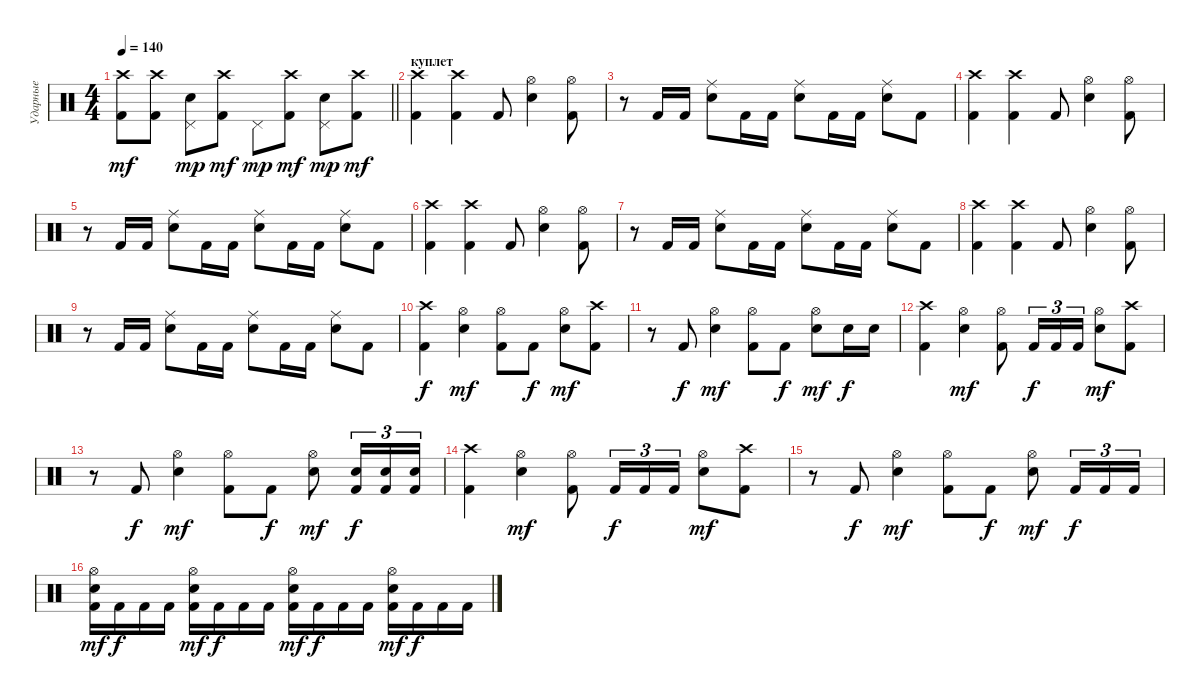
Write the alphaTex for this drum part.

\track ("Ударные" "Ударные") {instrument percussion}
\staff {score}
\articulation defaults
\ts (4 4)
\tempo 140
\clef neutral
\barLineRight lightlight
\ks c
("Kick (hit) 2" "Crash high (hit)").8{dy mf} ("Kick (hit) 2" "Crash high (hit)").8 ("Snare (hit) 2" "Pedal Hi-Hat (hit)").8{dy mp} ("Kick (hit) 2" "Crash high (hit)").8{dy mf} "Pedal Hi-Hat (hit)".8{dy mp} ("Kick (hit) 2" "Crash high (hit)").8{dy mf} ("Snare (hit) 2" "Pedal Hi-Hat (hit)").8{dy mp} ("Kick (hit) 2" "Crash high (hit)").8{dy mf} |
\section ("" "куплет")
("Kick (hit) 2" "Crash high (hit)").4 ("Kick (hit) 2" "Crash high (hit)").4 "Kick (hit) 2".8 ("Snare (hit) 2" "Hi-Hat (open)").4 ("Kick (hit) 2" "Hi-Hat (open)").8 |
r.8 "Kick (hit) 2".16 "Kick (hit) 2".16 ("Snare (hit) 2" "Ride (middle)").8 "Kick (hit) 2".16 "Kick (hit) 2".16 ("Snare (hit) 2" "Ride (middle)").8 "Kick (hit) 2".16 "Kick (hit) 2".16 ("Snare (hit) 2" "Ride (middle)").8 "Kick (hit) 2".8 |
("Kick (hit) 2" "Crash high (hit)").4 ("Kick (hit) 2" "Crash high (hit)").4 "Kick (hit) 2".8 ("Snare (hit) 2" "Hi-Hat (open)").4 ("Kick (hit) 2" "Hi-Hat (open)").8 |
r.8 "Kick (hit) 2".16 "Kick (hit) 2".16 ("Snare (hit) 2" "Ride (middle)").8 "Kick (hit) 2".16 "Kick (hit) 2".16 ("Snare (hit) 2" "Ride (middle)").8 "Kick (hit) 2".16 "Kick (hit) 2".16 ("Snare (hit) 2" "Ride (middle)").8 "Kick (hit) 2".8 |
("Kick (hit) 2" "Crash high (hit)").4 ("Kick (hit) 2" "Crash high (hit)").4 "Kick (hit) 2".8 ("Snare (hit) 2" "Hi-Hat (open)").4 ("Kick (hit) 2" "Hi-Hat (open)").8 |
r.8 "Kick (hit) 2".16 "Kick (hit) 2".16 ("Snare (hit) 2" "Ride (middle)").8 "Kick (hit) 2".16 "Kick (hit) 2".16 ("Snare (hit) 2" "Ride (middle)").8 "Kick (hit) 2".16 "Kick (hit) 2".16 ("Snare (hit) 2" "Ride (middle)").8 "Kick (hit) 2".8 |
("Kick (hit) 2" "Crash high (hit)").4 ("Kick (hit) 2" "Crash high (hit)").4 "Kick (hit) 2".8 ("Snare (hit) 2" "Hi-Hat (open)").4 ("Kick (hit) 2" "Hi-Hat (open)").8 |
r.8 "Kick (hit) 2".16 "Kick (hit) 2".16 ("Snare (hit) 2" "Ride (middle)").8 "Kick (hit) 2".16 "Kick (hit) 2".16 ("Snare (hit) 2" "Ride (middle)").8 "Kick (hit) 2".16 "Kick (hit) 2".16 ("Snare (hit) 2" "Ride (middle)").8 "Kick (hit) 2".8 |
("Kick (hit) 2" "Crash high (hit)").4{dy f} ("Snare (hit) 2" "Hi-Hat (open)").4{dy mf} ("Kick (hit) 2" "Hi-Hat (open)").8 "Kick (hit) 2".8{dy f} ("Snare (hit) 2" "Hi-Hat (open)").8{dy mf} ("Kick (hit) 2" "Crash high (hit)").8 |
r.8 "Kick (hit) 2".8{dy f} ("Snare (hit) 2" "Hi-Hat (open)").4{dy mf} ("Kick (hit) 2" "Hi-Hat (open)").8 "Kick (hit) 2".8{dy f} ("Snare (hit) 2" "Hi-Hat (open)").8{dy mf} "Snare (hit) 2".16{dy f} "Snare (hit) 2".16 |
("Kick (hit) 2" "Crash high (hit)").4 ("Snare (hit) 2" "Hi-Hat (open)").4{dy mf} ("Kick (hit) 2" "Hi-Hat (open)").8 "Kick (hit) 2".16{tu (3 2) dy f} "Kick (hit) 2".16{tu (3 2)} "Kick (hit) 2".16{tu (3 2)} ("Snare (hit) 2" "Hi-Hat (open)").8{dy mf} ("Kick (hit) 2" "Crash high (hit)").8 |
r.8 "Kick (hit) 2".8{dy f} ("Snare (hit) 2" "Hi-Hat (open)").4{dy mf} ("Kick (hit) 2" "Hi-Hat (open)").8 "Kick (hit) 2".8{dy f} ("Snare (hit) 2" "Hi-Hat (open)").8{dy mf} ("Kick (hit) 2" "Snare (hit) 2").16{tu (3 2) dy f} ("Kick (hit) 2" "Snare (hit) 2").16{tu (3 2)} ("Kick (hit) 2" "Snare (hit) 2").16{tu (3 2)} |
("Kick (hit) 2" "Crash high (hit)").4 ("Snare (hit) 2" "Hi-Hat (open)").4{dy mf} ("Kick (hit) 2" "Hi-Hat (open)").8 "Kick (hit) 2".16{tu (3 2) dy f} "Kick (hit) 2".16{tu (3 2)} "Kick (hit) 2".16{tu (3 2)} ("Snare (hit) 2" "Hi-Hat (open)").8{dy mf} ("Kick (hit) 2" "Crash high (hit)").8 |
r.8 "Kick (hit) 2".8{dy f} ("Snare (hit) 2" "Hi-Hat (open)").4{dy mf} ("Kick (hit) 2" "Hi-Hat (open)").8 "Kick (hit) 2".8{dy f} ("Snare (hit) 2" "Hi-Hat (open)").8{dy mf} "Kick (hit) 2".16{tu (3 2) dy f} "Kick (hit) 2".16{tu (3 2)} "Kick (hit) 2".16{tu (3 2)} |
("Kick (hit) 2" "Snare (hit) 2" "Hi-Hat (open)").16{dy mf} "Kick (hit) 2".16{dy f} "Kick (hit) 2".16 "Kick (hit) 2".16 ("Kick (hit) 2" "Snare (hit) 2" "Hi-Hat (open)").16{dy mf} "Kick (hit) 2".16{dy f} "Kick (hit) 2".16 "Kick (hit) 2".16 ("Kick (hit) 2" "Snare (hit) 2" "Hi-Hat (open)").16{dy mf} "Kick (hit) 2".16{dy f} "Kick (hit) 2".16 "Kick (hit) 2".16 ("Kick (hit) 2" "Snare (hit) 2" "Hi-Hat (open)").16{dy mf} "Kick (hit) 2".16{dy f} "Kick (hit) 2".16 "Kick (hit) 2".16
